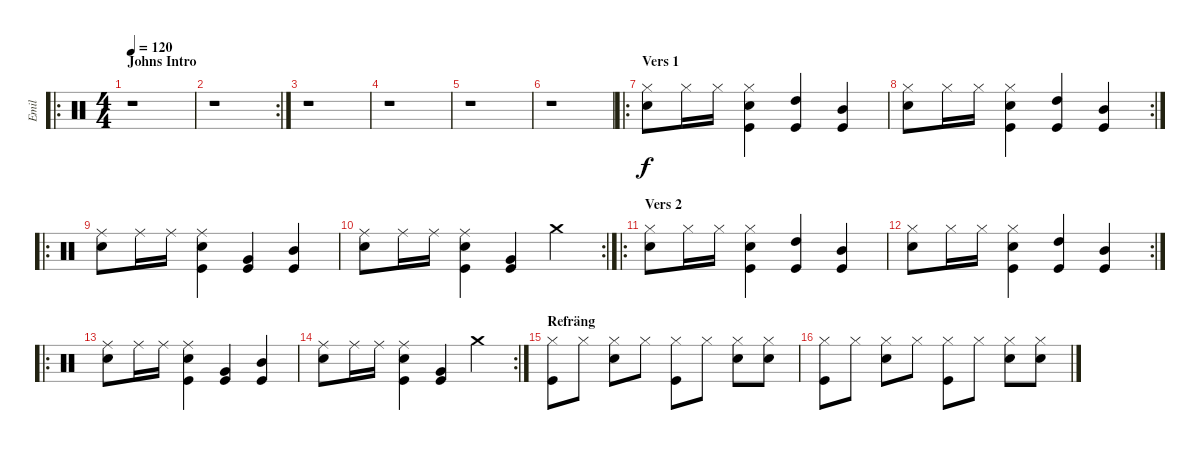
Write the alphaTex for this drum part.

\track ("Emil" "Emil") {instrument percussion}
\staff {score}
\articulation defaults
\ro
\ts (4 4)
\section ("" "Johns Intro")
\tempo 120
\clef neutral
\ks c
r.1{dy f} |
\rc 2
r.1 |
r.1 |
r.1 |
r.1 |
r.1 |
\ro
\section ("" "Vers 1")
("Hi-Hat (closed)" "Electric Snare (hit)").8 "Hi-Hat (closed)".16 "Hi-Hat (closed)".16 ("Hi-Hat (closed)" "Electric Snare (hit)" "Kick (hit)").4 ("High Tom (hit)" "Kick (hit)").4 ("Mid Tom (hit)" "Kick (hit)").4 |
\rc 2
("Hi-Hat (closed)" "Electric Snare (hit)").8 "Hi-Hat (closed)".16 "Hi-Hat (closed)".16 ("Hi-Hat (closed)" "Electric Snare (hit)" "Kick (hit)").4 ("High Tom (hit)" "Kick (hit)").4 ("Mid Tom (hit)" "Kick (hit)").4 |
\ro
("Ride (middle)" "Electric Snare (hit)").8 "Ride (middle)".16 "Ride (middle)".16 ("Ride (middle)" "Electric Snare (hit)" "Kick (hit)").4 ("Very Low Tom (hit)" "Kick (hit)").4 ("Mid Tom (hit)" "Kick (hit)").4 |
\rc 2
("Ride (middle)" "Electric Snare (hit)").8 "Ride (middle)".16 "Ride (middle)".16 ("Ride (middle)" "Electric Snare (hit)" "Kick (hit)").4 ("Very Low Tom (hit)" "Kick (hit)").4 "Crash medium (hit)".4 |
\ro
\section ("" "Vers 2")
("Hi-Hat (closed)" "Electric Snare (hit)").8 "Hi-Hat (closed)".16 "Hi-Hat (closed)".16 ("Hi-Hat (closed)" "Electric Snare (hit)" "Kick (hit)").4 ("High Tom (hit)" "Kick (hit)").4 ("Mid Tom (hit)" "Kick (hit)").4 |
\rc 2
("Hi-Hat (closed)" "Electric Snare (hit)").8 "Hi-Hat (closed)".16 "Hi-Hat (closed)".16 ("Hi-Hat (closed)" "Electric Snare (hit)" "Kick (hit)").4 ("High Tom (hit)" "Kick (hit)").4 ("Mid Tom (hit)" "Kick (hit)").4 |
\ro
("Ride (middle)" "Electric Snare (hit)").8 "Ride (middle)".16 "Ride (middle)".16 ("Ride (middle)" "Electric Snare (hit)" "Kick (hit)").4 ("Very Low Tom (hit)" "Kick (hit)").4 ("Mid Tom (hit)" "Kick (hit)").4 |
\rc 2
("Ride (middle)" "Electric Snare (hit)").8 "Ride (middle)".16 "Ride (middle)".16 ("Ride (middle)" "Electric Snare (hit)" "Kick (hit)").4 ("Very Low Tom (hit)" "Kick (hit)").4 "Crash medium (hit)".4 |
\section ("" "Refräng")
("Hi-Hat (closed)" "Kick (hit)").8 "Hi-Hat (closed)".8 ("Hi-Hat (closed)" "Electric Snare (hit)").8 "Hi-Hat (closed)".8 ("Hi-Hat (closed)" "Kick (hit)").8 "Hi-Hat (closed)".8 ("Hi-Hat (closed)" "Electric Snare (hit)").8 ("Hi-Hat (closed)" "Electric Snare (hit)").8 |
("Hi-Hat (closed)" "Kick (hit)").8 "Hi-Hat (closed)".8 ("Hi-Hat (closed)" "Electric Snare (hit)").8 "Hi-Hat (closed)".8 ("Hi-Hat (closed)" "Kick (hit)").8 "Hi-Hat (closed)".8 ("Hi-Hat (closed)" "Electric Snare (hit)").8 ("Hi-Hat (closed)" "Electric Snare (hit)").8
